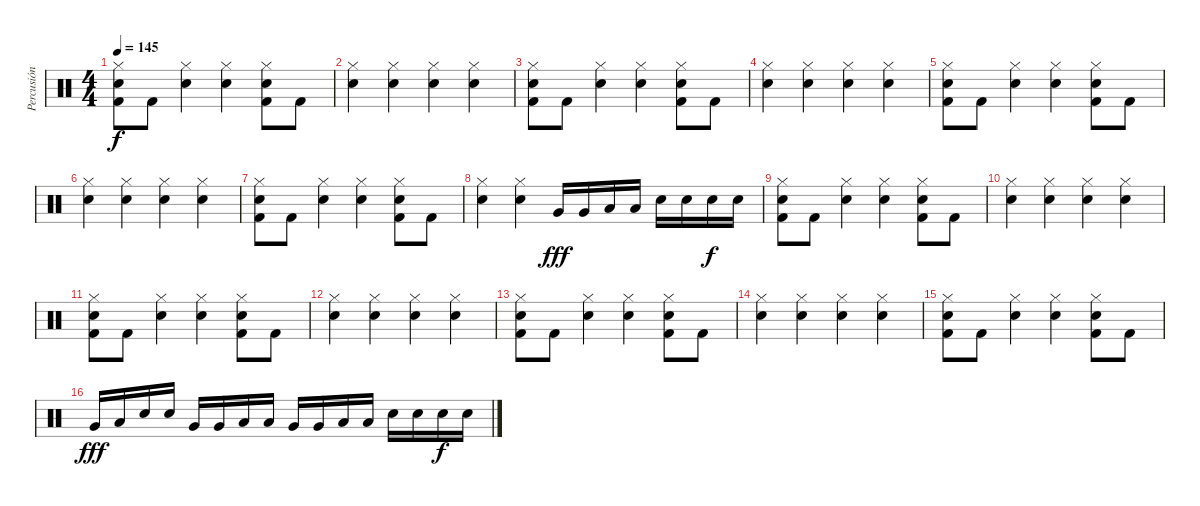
\track ("Percusión" "Percusión") {instrument percussion}
\staff {score}
\articulation defaults
\ts (4 4)
\tempo 145
\clef neutral
\ks c
("Hi-Hat (closed)" "Snare (hit) 2" "Kick (hit) 2").8{dy f} "Kick (hit) 2".8 ("Hi-Hat (closed)" "Snare (hit) 2").4 ("Hi-Hat (closed)" "Snare (hit) 2").4 ("Hi-Hat (closed)" "Snare (hit) 2" "Kick (hit) 2").8 "Kick (hit) 2".8 |
("Hi-Hat (closed)" "Snare (hit) 2").4 ("Hi-Hat (closed)" "Snare (hit) 2").4 ("Hi-Hat (closed)" "Snare (hit) 2").4 ("Hi-Hat (closed)" "Snare (hit) 2").4 |
("Hi-Hat (closed)" "Snare (hit) 2" "Kick (hit) 2").8 "Kick (hit) 2".8 ("Hi-Hat (closed)" "Snare (hit) 2").4 ("Hi-Hat (closed)" "Snare (hit) 2").4 ("Hi-Hat (closed)" "Snare (hit) 2" "Kick (hit) 2").8 "Kick (hit) 2".8 |
("Hi-Hat (closed)" "Snare (hit) 2").4 ("Hi-Hat (closed)" "Snare (hit) 2").4 ("Hi-Hat (closed)" "Snare (hit) 2").4 ("Hi-Hat (closed)" "Snare (hit) 2").4 |
("Hi-Hat (closed)" "Snare (hit) 2" "Kick (hit) 2").8 "Kick (hit) 2".8 ("Hi-Hat (closed)" "Snare (hit) 2").4 ("Hi-Hat (closed)" "Snare (hit) 2").4 ("Hi-Hat (closed)" "Snare (hit) 2" "Kick (hit) 2").8 "Kick (hit) 2".8 |
("Hi-Hat (closed)" "Snare (hit) 2").4 ("Hi-Hat (closed)" "Snare (hit) 2").4 ("Hi-Hat (closed)" "Snare (hit) 2").4 ("Hi-Hat (closed)" "Snare (hit) 2").4 |
("Hi-Hat (closed)" "Snare (hit) 2" "Kick (hit) 2").8 "Kick (hit) 2".8 ("Hi-Hat (closed)" "Snare (hit) 2").4 ("Hi-Hat (closed)" "Snare (hit) 2").4 ("Hi-Hat (closed)" "Snare (hit) 2" "Kick (hit) 2").8 "Kick (hit) 2".8 |
("Hi-Hat (closed)" "Snare (hit) 2").4 ("Hi-Hat (closed)" "Snare (hit) 2").4 "Very Low Tom (hit)".16{dy fff} "Very Low Tom (hit)".16 "Low Tom (hit)".16 "Low Tom (hit)".16 "Snare (hit) 2".16 "Snare (hit) 2".16 "Snare (hit) 2".16{dy f} "Snare (hit) 2".16 |
("Hi-Hat (closed)" "Snare (hit) 2" "Kick (hit) 2").8 "Kick (hit) 2".8 ("Hi-Hat (closed)" "Snare (hit) 2").4 ("Hi-Hat (closed)" "Snare (hit) 2").4 ("Hi-Hat (closed)" "Snare (hit) 2" "Kick (hit) 2").8 "Kick (hit) 2".8 |
("Hi-Hat (closed)" "Snare (hit) 2").4 ("Hi-Hat (closed)" "Snare (hit) 2").4 ("Hi-Hat (closed)" "Snare (hit) 2").4 ("Hi-Hat (closed)" "Snare (hit) 2").4 |
("Hi-Hat (closed)" "Snare (hit) 2" "Kick (hit) 2").8 "Kick (hit) 2".8 ("Hi-Hat (closed)" "Snare (hit) 2").4 ("Hi-Hat (closed)" "Snare (hit) 2").4 ("Hi-Hat (closed)" "Snare (hit) 2" "Kick (hit) 2").8 "Kick (hit) 2".8 |
("Hi-Hat (closed)" "Snare (hit) 2").4 ("Hi-Hat (closed)" "Snare (hit) 2").4 ("Hi-Hat (closed)" "Snare (hit) 2").4 ("Hi-Hat (closed)" "Snare (hit) 2").4 |
("Hi-Hat (closed)" "Snare (hit) 2" "Kick (hit) 2").8 "Kick (hit) 2".8 ("Hi-Hat (closed)" "Snare (hit) 2").4 ("Hi-Hat (closed)" "Snare (hit) 2").4 ("Hi-Hat (closed)" "Snare (hit) 2" "Kick (hit) 2").8 "Kick (hit) 2".8 |
("Hi-Hat (closed)" "Snare (hit) 2").4 ("Hi-Hat (closed)" "Snare (hit) 2").4 ("Hi-Hat (closed)" "Snare (hit) 2").4 ("Hi-Hat (closed)" "Snare (hit) 2").4 |
("Hi-Hat (closed)" "Snare (hit) 2" "Kick (hit) 2").8 "Kick (hit) 2".8 ("Hi-Hat (closed)" "Snare (hit) 2").4 ("Hi-Hat (closed)" "Snare (hit) 2").4 ("Hi-Hat (closed)" "Snare (hit) 2" "Kick (hit) 2").8 "Kick (hit) 2".8 |
"Very Low Tom (hit)".16{dy fff} "Low Tom (hit)".16 "Snare (hit) 2".16 "Snare (hit) 2".16 "Very Low Tom (hit)".16 "Very Low Tom (hit)".16 "Low Tom (hit)".16 "Low Tom (hit)".16 "Very Low Tom (hit)".16 "Very Low Tom (hit)".16 "Low Tom (hit)".16 "Low Tom (hit)".16 "Snare (hit) 2".16 "Snare (hit) 2".16 "Snare (hit) 2".16{dy f} "Snare (hit) 2".16
